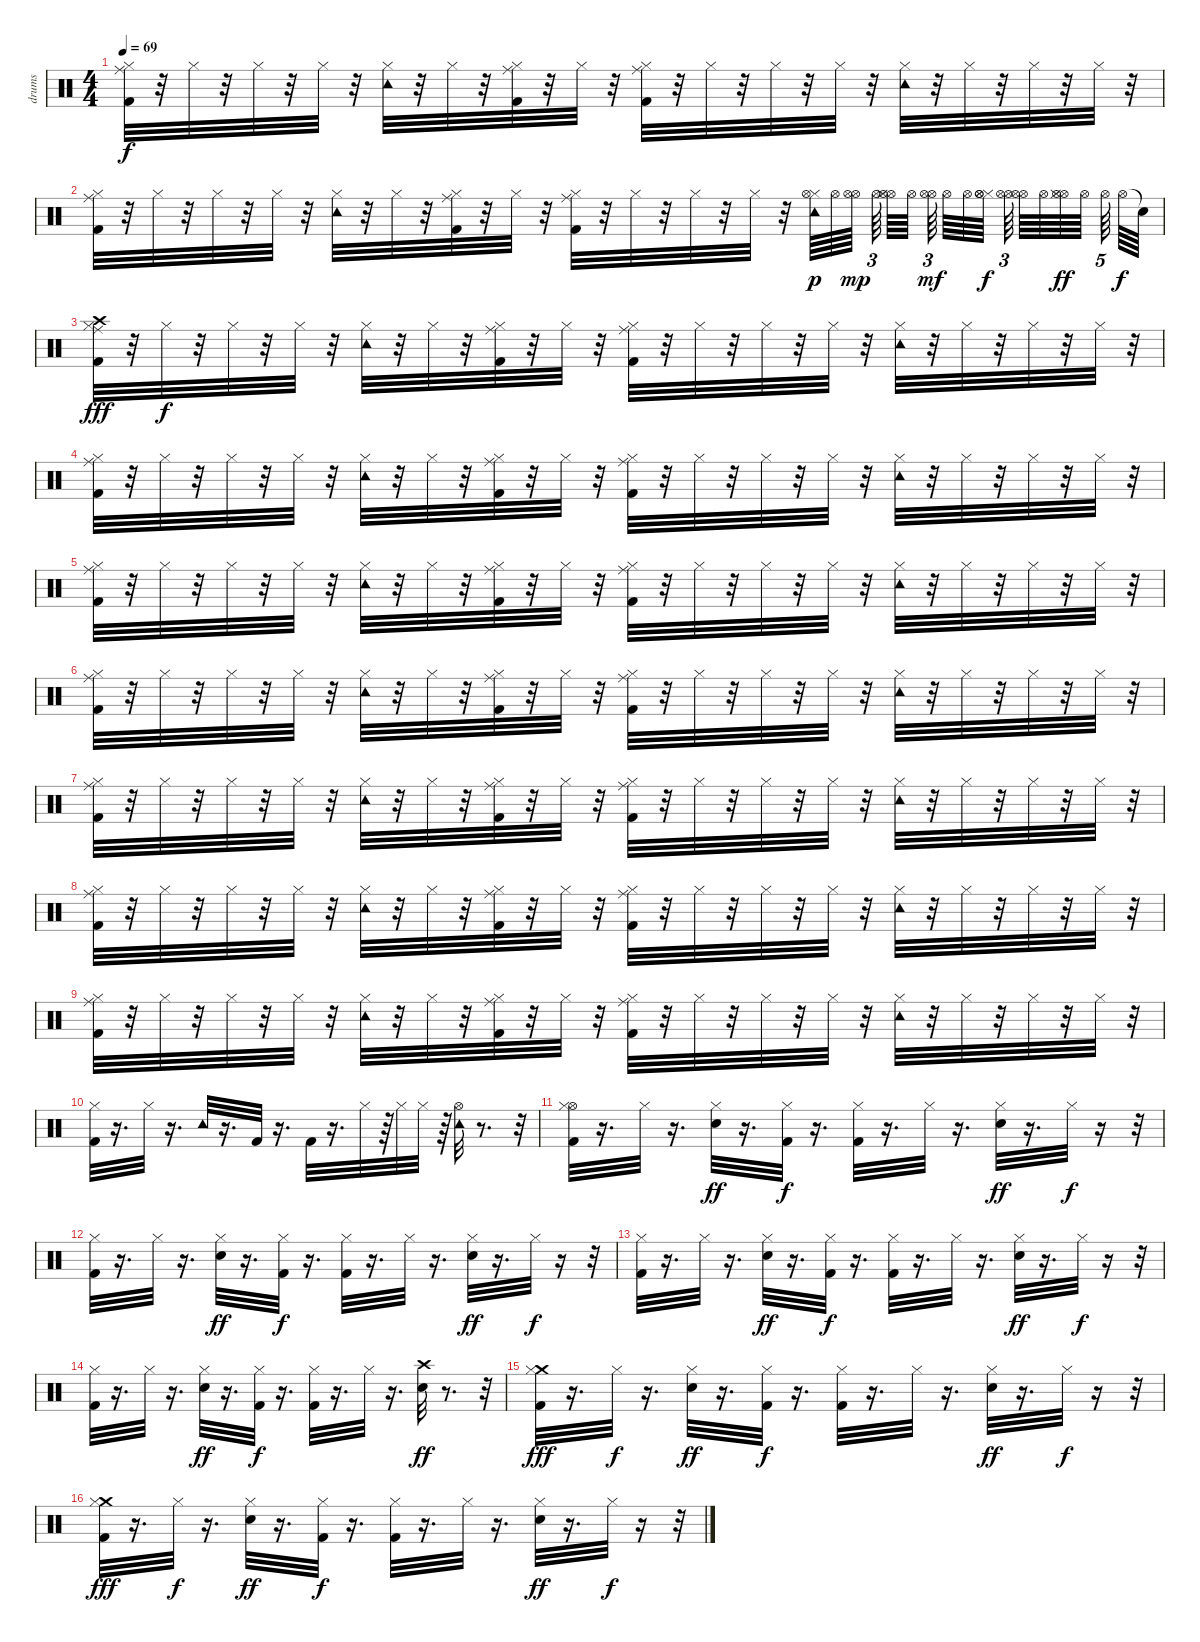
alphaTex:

\track ("drums" "drums") {instrument percussion}
\staff {score}
\articulation defaults
\ts (4 4)
\tempo 69
\clef neutral
\ks c
("Ride (middle)" "Kick (hit) 2" "Hi-Hat (closed)").32{dy f} r.32 "Hi-Hat (closed)".32 r.32 "Hi-Hat (closed)".32 r.32 "Hi-Hat (closed)".32 r.32 ("Tambourine (hit)" "Hi-Hat (closed)").32 r.32 "Hi-Hat (closed)".32 r.32 ("Ride (middle)" "Hi-Hat (closed)" "Kick (hit) 2").32 r.32 "Hi-Hat (closed)".32 r.32 ("Ride (middle)" "Hi-Hat (closed)" "Kick (hit) 2").32 r.32 "Hi-Hat (closed)".32 r.32 "Hi-Hat (closed)".32 r.32 "Hi-Hat (closed)".32 r.32 ("Hi-Hat (closed)" "Tambourine (hit)").32 r.32 "Hi-Hat (closed)".32 r.32 "Hi-Hat (closed)".32 r.32 "Hi-Hat (closed)".32 r.32 |
("Ride (middle)" "Kick (hit) 2" "Hi-Hat (closed)").32 r.32 "Hi-Hat (closed)".32 r.32 "Hi-Hat (closed)".32 r.32 "Hi-Hat (closed)".32 r.32 ("Tambourine (hit)" "Hi-Hat (closed)").32 r.32 "Hi-Hat (closed)".32 r.32 ("Ride (middle)" "Hi-Hat (closed)" "Kick (hit) 2").32 r.32 "Hi-Hat (closed)".32 r.32 ("Ride (middle)" "Hi-Hat (closed)" "Kick (hit) 2").32 r.32 "Hi-Hat (closed)".32 r.32 "Hi-Hat (closed)".32 r.32 "Hi-Hat (closed)".32 r.32 ("Hi-Hat (closed)" "Tambourine (hit)" "Hi-Hat (open)").64{dy p} "Hi-Hat (open)".64 ("Hi-Hat (open)" "Hi-Hat (open)").64{dy mp} "Hi-Hat (open)".64{tu (3 2)} ("Hi-Hat (open)" "Hi-Hat (open)" "Hi-Hat (closed)").64 "Hi-Hat (open)".64 ("Hi-Hat (open)" "Hi-Hat (open)").64{tu (3 2) dy mf} "Hi-Hat (open)".64 "Hi-Hat (open)".64 ("Hi-Hat (closed)" "Hi-Hat (open)" "Hi-Hat (open)").64{dy f} ("Hi-Hat (open)" "Hi-Hat (open)").64{tu (3 2)} ("Hi-Hat (open)" "Hi-Hat (open)").64 "Hi-Hat (open)".64 ("Hi-Hat (open)" "Hi-Hat (closed)" "Hi-Hat (open)").64{dy ff} "Hi-Hat (open)".64 "Hi-Hat (open)".64{tu (5 4)} "Hi-Hat (open)".64{dy f} "Snare (hit)"{t}.64 |
("Ride (middle)" "Kick (hit) 2" "Hi-Hat (closed)" "Crash high (hit)").32{dy fff} r.32 "Hi-Hat (closed)".32{dy f} r.32 "Hi-Hat (closed)".32 r.32 "Hi-Hat (closed)".32 r.32 ("Tambourine (hit)" "Hi-Hat (closed)").32 r.32 "Hi-Hat (closed)".32 r.32 ("Ride (middle)" "Hi-Hat (closed)" "Kick (hit) 2").32 r.32 "Hi-Hat (closed)".32 r.32 ("Ride (middle)" "Hi-Hat (closed)" "Kick (hit) 2").32 r.32 "Hi-Hat (closed)".32 r.32 "Hi-Hat (closed)".32 r.32 "Hi-Hat (closed)".32 r.32 ("Hi-Hat (closed)" "Tambourine (hit)").32 r.32 "Hi-Hat (closed)".32 r.32 "Hi-Hat (closed)".32 r.32 "Hi-Hat (closed)".32 r.32{tu (5 4)} |
("Ride (middle)" "Kick (hit) 2" "Hi-Hat (closed)").32 r.32 "Hi-Hat (closed)".32 r.32 "Hi-Hat (closed)".32 r.32 "Hi-Hat (closed)".32 r.32 ("Tambourine (hit)" "Hi-Hat (closed)").32 r.32 "Hi-Hat (closed)".32 r.32 ("Ride (middle)" "Hi-Hat (closed)" "Kick (hit) 2").32 r.32 "Hi-Hat (closed)".32 r.32 ("Ride (middle)" "Hi-Hat (closed)" "Kick (hit) 2").32 r.32 "Hi-Hat (closed)".32 r.32 "Hi-Hat (closed)".32 r.32 "Hi-Hat (closed)".32 r.32 ("Hi-Hat (closed)" "Tambourine (hit)").32 r.32 "Hi-Hat (closed)".32 r.32 "Hi-Hat (closed)".32 r.32 "Hi-Hat (closed)".32 r.32{tu (5 4)} |
("Ride (middle)" "Kick (hit) 2" "Hi-Hat (closed)").32 r.32 "Hi-Hat (closed)".32 r.32 "Hi-Hat (closed)".32 r.32 "Hi-Hat (closed)".32 r.32 ("Tambourine (hit)" "Hi-Hat (closed)").32 r.32 "Hi-Hat (closed)".32 r.32 ("Ride (middle)" "Hi-Hat (closed)" "Kick (hit) 2").32 r.32 "Hi-Hat (closed)".32 r.32 ("Ride (middle)" "Hi-Hat (closed)" "Kick (hit) 2").32 r.32 "Hi-Hat (closed)".32 r.32 "Hi-Hat (closed)".32 r.32 "Hi-Hat (closed)".32 r.32 ("Hi-Hat (closed)" "Tambourine (hit)").32 r.32 "Hi-Hat (closed)".32 r.32 "Hi-Hat (closed)".32 r.32 "Hi-Hat (closed)".32 r.32{tu (5 4)} |
("Ride (middle)" "Kick (hit) 2" "Hi-Hat (closed)").32 r.32 "Hi-Hat (closed)".32 r.32 "Hi-Hat (closed)".32 r.32 "Hi-Hat (closed)".32 r.32 ("Tambourine (hit)" "Hi-Hat (closed)").32 r.32 "Hi-Hat (closed)".32 r.32 ("Ride (middle)" "Hi-Hat (closed)" "Kick (hit) 2").32 r.32 "Hi-Hat (closed)".32 r.32 ("Ride (middle)" "Hi-Hat (closed)" "Kick (hit) 2").32 r.32 "Hi-Hat (closed)".32 r.32 "Hi-Hat (closed)".32 r.32 "Hi-Hat (closed)".32 r.32 ("Hi-Hat (closed)" "Tambourine (hit)").32 r.32 "Hi-Hat (closed)".32 r.32 "Hi-Hat (closed)".32 r.32 "Hi-Hat (closed)".32 r.32{tu (5 4)} |
("Ride (middle)" "Kick (hit) 2" "Hi-Hat (closed)").32 r.32 "Hi-Hat (closed)".32 r.32 "Hi-Hat (closed)".32 r.32 "Hi-Hat (closed)".32 r.32 ("Tambourine (hit)" "Hi-Hat (closed)").32 r.32 "Hi-Hat (closed)".32 r.32 ("Ride (middle)" "Hi-Hat (closed)" "Kick (hit) 2").32 r.32 "Hi-Hat (closed)".32 r.32 ("Ride (middle)" "Hi-Hat (closed)" "Kick (hit) 2").32 r.32 "Hi-Hat (closed)".32 r.32 "Hi-Hat (closed)".32 r.32 "Hi-Hat (closed)".32 r.32 ("Hi-Hat (closed)" "Tambourine (hit)").32 r.32 "Hi-Hat (closed)".32 r.32 "Hi-Hat (closed)".32 r.32 "Hi-Hat (closed)".32 r.32{tu (5 4)} |
("Ride (middle)" "Kick (hit) 2" "Hi-Hat (closed)").32 r.32 "Hi-Hat (closed)".32 r.32 "Hi-Hat (closed)".32 r.32 "Hi-Hat (closed)".32 r.32 ("Tambourine (hit)" "Hi-Hat (closed)").32 r.32 "Hi-Hat (closed)".32 r.32 ("Ride (middle)" "Hi-Hat (closed)" "Kick (hit) 2").32 r.32 "Hi-Hat (closed)".32 r.32 ("Ride (middle)" "Hi-Hat (closed)" "Kick (hit) 2").32 r.32 "Hi-Hat (closed)".32 r.32 "Hi-Hat (closed)".32 r.32 "Hi-Hat (closed)".32 r.32 ("Hi-Hat (closed)" "Tambourine (hit)").32 r.32 "Hi-Hat (closed)".32 r.32 "Hi-Hat (closed)".32 r.32 "Hi-Hat (closed)".32 r.32{tu (5 4)} |
("Ride (middle)" "Kick (hit) 2" "Hi-Hat (closed)").32 r.32 "Hi-Hat (closed)".32 r.32 "Hi-Hat (closed)".32 r.32 "Hi-Hat (closed)".32 r.32 ("Tambourine (hit)" "Hi-Hat (closed)").32 r.32 "Hi-Hat (closed)".32 r.32 ("Ride (middle)" "Hi-Hat (closed)" "Kick (hit) 2").32 r.32 "Hi-Hat (closed)".32 r.32 ("Ride (middle)" "Hi-Hat (closed)" "Kick (hit) 2").32 r.32 "Hi-Hat (closed)".32 r.32 "Hi-Hat (closed)".32 r.32 "Hi-Hat (closed)".32 r.32 ("Hi-Hat (closed)" "Tambourine (hit)").32 r.32 "Hi-Hat (closed)".32 r.32 "Hi-Hat (closed)".32 r.32 "Hi-Hat (closed)".32 r.32{tu (5 4)} |
("Kick (hit) 2" "Hi-Hat (closed)").32 r.16{d} "Hi-Hat (closed)".32 r.16{d} "Tambourine (hit)".32 r.16{d} "Kick (hit) 2".32 r.16{d} "Kick (hit) 2".32 r.16{d} "Hi-Hat (closed)".32 r.64 "Hi-Hat (closed)".32 "Hi-Hat (closed)".32 r.64 ("Hi-Hat (open)" "Tambourine (hit)").32 r.8{d} r.32{tu (5 4)} |
("Hi-Hat (open)" "Hi-Hat (closed)" "Kick (hit) 2").32 r.16{d} "Hi-Hat (closed)".32 r.16{d} ("Hi-Hat (closed)" "Snare (hit) 2").32{dy ff} r.16{d} ("Hi-Hat (closed)" "Kick (hit) 2").32{dy f} r.16{d} ("Hi-Hat (closed)" "Kick (hit) 2").32 r.16{d} "Hi-Hat (closed)".32 r.16{d} ("Hi-Hat (closed)" "Snare (hit) 2").32{dy ff} r.16{d} "Hi-Hat (closed)".32{dy f} r.16 r.32{tu (5 4)} |
("Hi-Hat (closed)" "Kick (hit) 2").32 r.16{d} "Hi-Hat (closed)".32 r.16{d} ("Hi-Hat (closed)" "Snare (hit) 2").32{dy ff} r.16{d} ("Hi-Hat (closed)" "Kick (hit) 2").32{dy f} r.16{d} ("Hi-Hat (closed)" "Kick (hit) 2").32 r.16{d} "Hi-Hat (closed)".32 r.16{d} ("Hi-Hat (closed)" "Snare (hit) 2").32{dy ff} r.16{d} "Hi-Hat (closed)".32{dy f} r.16 r.32{tu (5 4)} |
("Hi-Hat (closed)" "Kick (hit) 2").32 r.16{d} "Hi-Hat (closed)".32 r.16{d} ("Hi-Hat (closed)" "Snare (hit) 2").32{dy ff} r.16{d} ("Hi-Hat (closed)" "Kick (hit) 2").32{dy f} r.16{d} ("Hi-Hat (closed)" "Kick (hit) 2").32 r.16{d} "Hi-Hat (closed)".32 r.16{d} ("Hi-Hat (closed)" "Snare (hit) 2").32{dy ff} r.16{d} "Hi-Hat (closed)".32{dy f} r.16 r.32{tu (5 4)} |
("Hi-Hat (closed)" "Kick (hit) 2").32 r.16{d} "Hi-Hat (closed)".32 r.16{d} ("Hi-Hat (closed)" "Snare (hit) 2").32{dy ff} r.16{d} ("Hi-Hat (closed)" "Kick (hit) 2").32{dy f} r.16{d} ("Hi-Hat (closed)" "Kick (hit) 2").32 r.16{d} "Hi-Hat (closed)".32 r.16{d} ("Crash high (hit)" "Snare (hit) 2").32{dy ff} r.8{d} r.32{tu (5 4)} |
("Crash medium (hit)" "Hi-Hat (closed)" "Kick (hit) 2").32{dy fff} r.16{d} "Hi-Hat (closed)".32{dy f} r.16{d} ("Hi-Hat (closed)" "Snare (hit) 2").32{dy ff} r.16{d} ("Hi-Hat (closed)" "Kick (hit) 2").32{dy f} r.16{d} ("Hi-Hat (closed)" "Kick (hit) 2").32 r.16{d} "Hi-Hat (closed)".32 r.16{d} ("Hi-Hat (closed)" "Snare (hit) 2").32{dy ff} r.16{d} "Hi-Hat (closed)".32{dy f} r.16 r.32{tu (5 4)} |
("Crash medium (hit)" "Hi-Hat (closed)" "Kick (hit) 2").32{dy fff} r.16{d} "Hi-Hat (closed)".32{dy f} r.16{d} ("Hi-Hat (closed)" "Snare (hit) 2").32{dy ff} r.16{d} ("Hi-Hat (closed)" "Kick (hit) 2").32{dy f} r.16{d} ("Hi-Hat (closed)" "Kick (hit) 2").32 r.16{d} "Hi-Hat (closed)".32 r.16{d} ("Hi-Hat (closed)" "Snare (hit) 2").32{dy ff} r.16{d} "Hi-Hat (closed)".32{dy f} r.16 r.32{tu (5 4)}
